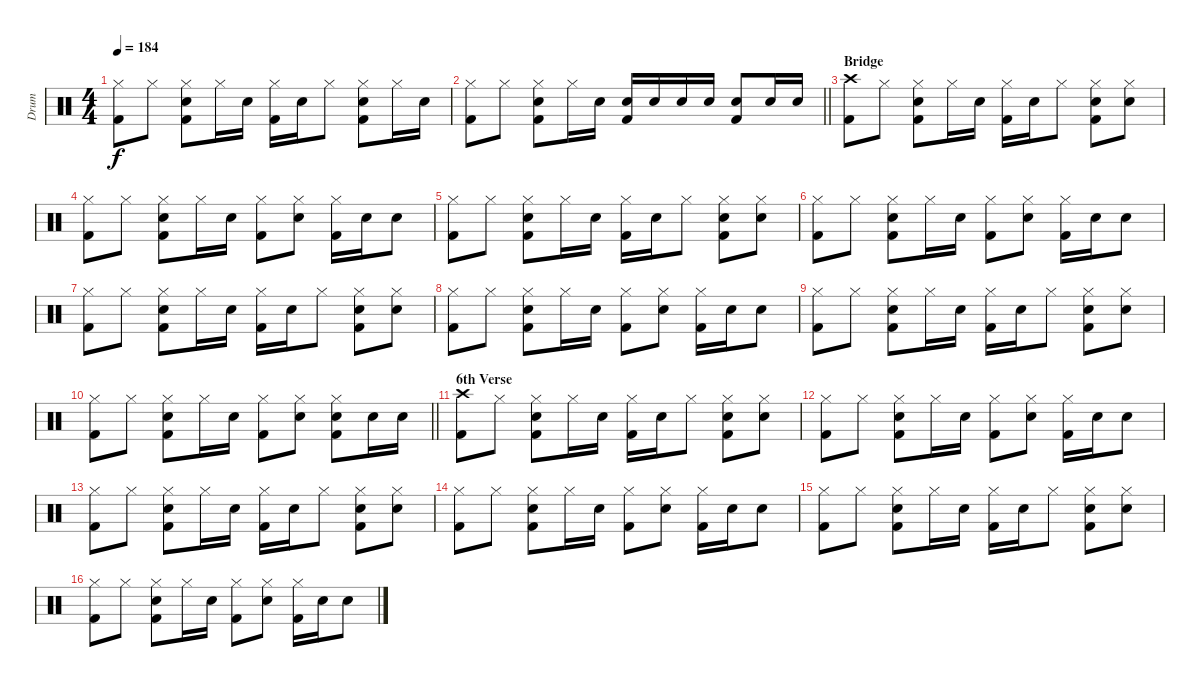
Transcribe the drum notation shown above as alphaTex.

\track ("Drum" "Drum") {instrument percussion}
\staff {score}
\articulation defaults
\ts (4 4)
\tempo 184
\clef neutral
\ks c
("Hi-Hat (closed)" "Kick (hit) 2").8{dy f} "Hi-Hat (closed)".8 ("Hi-Hat (closed)" "Electric Snare (hit)" "Kick (hit) 2").8 "Hi-Hat (closed)".16 "Electric Snare (hit)".16 ("Hi-Hat (closed)" "Kick (hit) 2").16 "Electric Snare (hit)".16 "Hi-Hat (closed)".8 ("Hi-Hat (closed)" "Electric Snare (hit)" "Kick (hit) 2").8 "Hi-Hat (closed)".16 "Electric Snare (hit)".16 |
\barLineRight lightlight
("Hi-Hat (closed)" "Kick (hit) 2").8 "Hi-Hat (closed)".8 ("Hi-Hat (closed)" "Electric Snare (hit)" "Kick (hit) 2").8 "Hi-Hat (closed)".16 "Electric Snare (hit)".16 ("Electric Snare (hit)" "Kick (hit) 2").16 "Electric Snare (hit)".16 "Electric Snare (hit)".16 "Electric Snare (hit)".16 ("Electric Snare (hit)" "Kick (hit) 2").8 "Electric Snare (hit)".16 "Electric Snare (hit)".16 |
\section ("" "Bridge")
("Crash high (hit)" "Kick (hit) 2").8 "Hi-Hat (closed)".8 ("Hi-Hat (closed)" "Electric Snare (hit)" "Kick (hit) 2").8 "Hi-Hat (closed)".16 "Electric Snare (hit)".16 ("Hi-Hat (closed)" "Kick (hit) 2").16 "Electric Snare (hit)".16 "Hi-Hat (closed)".8 ("Hi-Hat (closed)" "Electric Snare (hit)" "Kick (hit) 2").8 ("Hi-Hat (closed)" "Electric Snare (hit)").8 |
("Hi-Hat (closed)" "Kick (hit) 2").8 "Hi-Hat (closed)".8 ("Hi-Hat (closed)" "Electric Snare (hit)" "Kick (hit) 2").8 "Hi-Hat (closed)".16 "Electric Snare (hit)".16 ("Hi-Hat (closed)" "Kick (hit) 2").8 ("Hi-Hat (closed)" "Electric Snare (hit)").8 ("Hi-Hat (closed)" "Kick (hit) 2").16 "Electric Snare (hit)".16 "Electric Snare (hit)".8 |
("Hi-Hat (closed)" "Kick (hit) 2").8 "Hi-Hat (closed)".8 ("Hi-Hat (closed)" "Electric Snare (hit)" "Kick (hit) 2").8 "Hi-Hat (closed)".16 "Electric Snare (hit)".16 ("Hi-Hat (closed)" "Kick (hit) 2").16 "Electric Snare (hit)".16 "Hi-Hat (closed)".8 ("Hi-Hat (closed)" "Electric Snare (hit)" "Kick (hit) 2").8 ("Hi-Hat (closed)" "Electric Snare (hit)").8 |
("Hi-Hat (closed)" "Kick (hit) 2").8 "Hi-Hat (closed)".8 ("Hi-Hat (closed)" "Electric Snare (hit)" "Kick (hit) 2").8 "Hi-Hat (closed)".16 "Electric Snare (hit)".16 ("Hi-Hat (closed)" "Kick (hit) 2").8 ("Hi-Hat (closed)" "Electric Snare (hit)").8 ("Hi-Hat (closed)" "Kick (hit) 2").16 "Electric Snare (hit)".16 "Electric Snare (hit)".8 |
("Hi-Hat (closed)" "Kick (hit) 2").8 "Hi-Hat (closed)".8 ("Hi-Hat (closed)" "Electric Snare (hit)" "Kick (hit) 2").8 "Hi-Hat (closed)".16 "Electric Snare (hit)".16 ("Hi-Hat (closed)" "Kick (hit) 2").16 "Electric Snare (hit)".16 "Hi-Hat (closed)".8 ("Hi-Hat (closed)" "Electric Snare (hit)" "Kick (hit) 2").8 ("Hi-Hat (closed)" "Electric Snare (hit)").8 |
("Hi-Hat (closed)" "Kick (hit) 2").8 "Hi-Hat (closed)".8 ("Hi-Hat (closed)" "Electric Snare (hit)" "Kick (hit) 2").8 "Hi-Hat (closed)".16 "Electric Snare (hit)".16 ("Hi-Hat (closed)" "Kick (hit) 2").8 ("Hi-Hat (closed)" "Electric Snare (hit)").8 ("Hi-Hat (closed)" "Kick (hit) 2").16 "Electric Snare (hit)".16 "Electric Snare (hit)".8 |
("Hi-Hat (closed)" "Kick (hit) 2").8 "Hi-Hat (closed)".8 ("Hi-Hat (closed)" "Electric Snare (hit)" "Kick (hit) 2").8 "Hi-Hat (closed)".16 "Electric Snare (hit)".16 ("Hi-Hat (closed)" "Kick (hit) 2").16 "Electric Snare (hit)".16 "Hi-Hat (closed)".8 ("Hi-Hat (closed)" "Electric Snare (hit)" "Kick (hit) 2").8 ("Hi-Hat (closed)" "Electric Snare (hit)").8 |
\barLineRight lightlight
("Hi-Hat (closed)" "Kick (hit) 2").8 "Hi-Hat (closed)".8 ("Hi-Hat (closed)" "Electric Snare (hit)" "Kick (hit) 2").8 "Hi-Hat (closed)".16 "Electric Snare (hit)".16 ("Hi-Hat (closed)" "Kick (hit) 2").8 ("Hi-Hat (closed)" "Electric Snare (hit)").8 ("Hi-Hat (closed)" "Electric Snare (hit)" "Kick (hit) 2").8 "Electric Snare (hit)".16 "Electric Snare (hit)".16 |
\section ("" "6th Verse")
("Crash high (hit)" "Kick (hit) 2").8 "Hi-Hat (closed)".8 ("Hi-Hat (closed)" "Electric Snare (hit)" "Kick (hit) 2").8 "Hi-Hat (closed)".16 "Electric Snare (hit)".16 ("Hi-Hat (closed)" "Kick (hit) 2").16 "Electric Snare (hit)".16 "Hi-Hat (closed)".8 ("Hi-Hat (closed)" "Electric Snare (hit)" "Kick (hit) 2").8 ("Hi-Hat (closed)" "Electric Snare (hit)").8 |
("Hi-Hat (closed)" "Kick (hit) 2").8 "Hi-Hat (closed)".8 ("Hi-Hat (closed)" "Electric Snare (hit)" "Kick (hit) 2").8 "Hi-Hat (closed)".16 "Electric Snare (hit)".16 ("Hi-Hat (closed)" "Kick (hit) 2").8 ("Hi-Hat (closed)" "Electric Snare (hit)").8 ("Hi-Hat (closed)" "Kick (hit) 2").16 "Electric Snare (hit)".16 "Electric Snare (hit)".8 |
("Hi-Hat (closed)" "Kick (hit) 2").8 "Hi-Hat (closed)".8 ("Hi-Hat (closed)" "Electric Snare (hit)" "Kick (hit) 2").8 "Hi-Hat (closed)".16 "Electric Snare (hit)".16 ("Hi-Hat (closed)" "Kick (hit) 2").16 "Electric Snare (hit)".16 "Hi-Hat (closed)".8 ("Hi-Hat (closed)" "Electric Snare (hit)" "Kick (hit) 2").8 ("Hi-Hat (closed)" "Electric Snare (hit)").8 |
("Hi-Hat (closed)" "Kick (hit) 2").8 "Hi-Hat (closed)".8 ("Hi-Hat (closed)" "Electric Snare (hit)" "Kick (hit) 2").8 "Hi-Hat (closed)".16 "Electric Snare (hit)".16 ("Hi-Hat (closed)" "Kick (hit) 2").8 ("Hi-Hat (closed)" "Electric Snare (hit)").8 ("Hi-Hat (closed)" "Kick (hit) 2").16 "Electric Snare (hit)".16 "Electric Snare (hit)".8 |
("Hi-Hat (closed)" "Kick (hit) 2").8 "Hi-Hat (closed)".8 ("Hi-Hat (closed)" "Electric Snare (hit)" "Kick (hit) 2").8 "Hi-Hat (closed)".16 "Electric Snare (hit)".16 ("Hi-Hat (closed)" "Kick (hit) 2").16 "Electric Snare (hit)".16 "Hi-Hat (closed)".8 ("Hi-Hat (closed)" "Electric Snare (hit)" "Kick (hit) 2").8 ("Hi-Hat (closed)" "Electric Snare (hit)").8 |
("Hi-Hat (closed)" "Kick (hit) 2").8 "Hi-Hat (closed)".8 ("Hi-Hat (closed)" "Electric Snare (hit)" "Kick (hit) 2").8 "Hi-Hat (closed)".16 "Electric Snare (hit)".16 ("Hi-Hat (closed)" "Kick (hit) 2").8 ("Hi-Hat (closed)" "Electric Snare (hit)").8 ("Hi-Hat (closed)" "Kick (hit) 2").16 "Electric Snare (hit)".16 "Electric Snare (hit)".8
